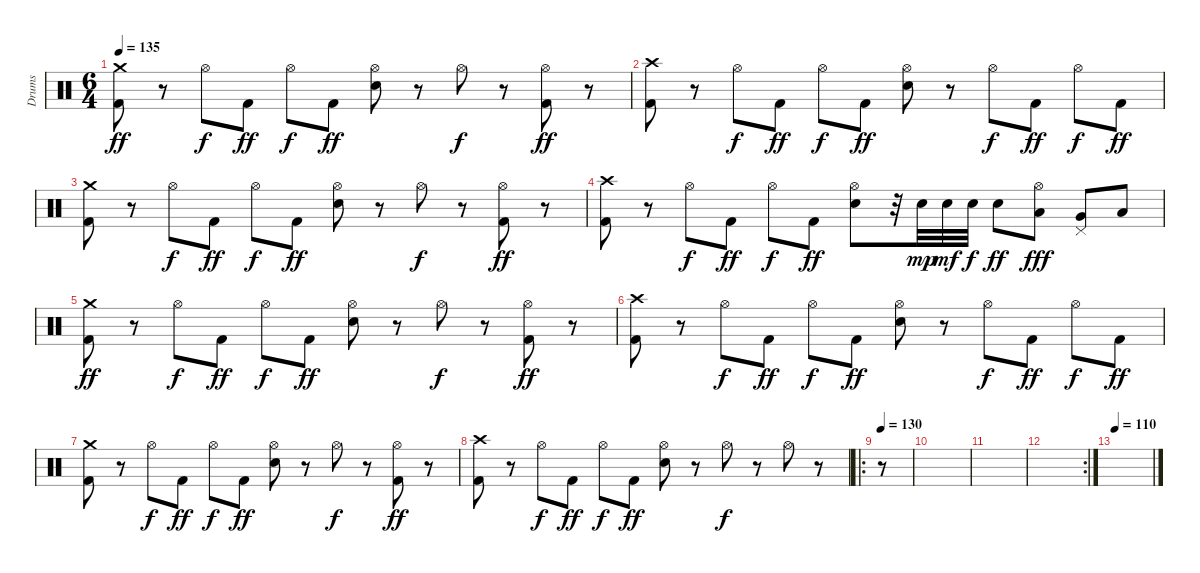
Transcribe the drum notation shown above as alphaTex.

\track ("Drums" "Drums") {instrument percussion}
\staff {score}
\articulation defaults
\ts (6 4)
\tempo 135
\clef neutral
\ks c
("Crash medium (hit)" "Kick (hit) 2").8{dy ff} r.8 "Hi-Hat (open)".8{dy f} "Kick (hit) 2".8{dy ff} "Hi-Hat (open)".8{dy f} "Kick (hit) 2".8{dy ff} ("Hi-Hat (open)" "Electric Snare (hit)").8 r.8 "Hi-Hat (open)".8{dy f} r.8 ("Hi-Hat (open)" "Kick (hit) 2").8{dy ff} r.8 |
("Crash high (hit)" "Kick (hit) 2").8 r.8 "Hi-Hat (open)".8{dy f} "Kick (hit) 2".8{dy ff} "Hi-Hat (open)".8{dy f} "Kick (hit) 2".8{dy ff} ("Hi-Hat (open)" "Electric Snare (hit)").8 r.8 "Hi-Hat (open)".8{dy f} "Kick (hit) 2".8{dy ff} "Hi-Hat (open)".8{dy f} "Kick (hit) 2".8{dy ff} |
("Crash medium (hit)" "Kick (hit) 2").8 r.8 "Hi-Hat (open)".8{dy f} "Kick (hit) 2".8{dy ff} "Hi-Hat (open)".8{dy f} "Kick (hit) 2".8{dy ff} ("Hi-Hat (open)" "Electric Snare (hit)").8 r.8 "Hi-Hat (open)".8{dy f} r.8 ("Hi-Hat (open)" "Kick (hit) 2").8{dy ff} r.8 |
("Crash high (hit)" "Kick (hit) 2").8 r.8 "Hi-Hat (open)".8{dy f} "Kick (hit) 2".8{dy ff} "Hi-Hat (open)".8{dy f} "Kick (hit) 2".8{dy ff} ("Hi-Hat (open)" "Electric Snare (hit)").8 r.32 "Electric Snare (hit)".32{dy mp} "Electric Snare (hit)".32{dy mf} "Electric Snare (hit)".32{dy f} "Electric Snare (hit)".8{dy ff} ("Hi-Hat (open)" "Low Tom (hit)").8{dy fff} ("Pedal Hi-Hat (hit)" "Very Low Tom (hit)").8 "Low Floor Tom (hit)".8 |
("Crash medium (hit)" "Kick (hit) 2").8{dy ff} r.8 "Hi-Hat (open)".8{dy f} "Kick (hit) 2".8{dy ff} "Hi-Hat (open)".8{dy f} "Kick (hit) 2".8{dy ff} ("Hi-Hat (open)" "Electric Snare (hit)").8 r.8 "Hi-Hat (open)".8{dy f} r.8 ("Hi-Hat (open)" "Kick (hit) 2").8{dy ff} r.8 |
("Crash high (hit)" "Kick (hit) 2").8 r.8 "Hi-Hat (open)".8{dy f} "Kick (hit) 2".8{dy ff} "Hi-Hat (open)".8{dy f} "Kick (hit) 2".8{dy ff} ("Hi-Hat (open)" "Electric Snare (hit)").8 r.8 "Hi-Hat (open)".8{dy f} "Kick (hit) 2".8{dy ff} "Hi-Hat (open)".8{dy f} "Kick (hit) 2".8{dy ff} |
("Crash medium (hit)" "Kick (hit) 2").8 r.8 "Hi-Hat (open)".8{dy f} "Kick (hit) 2".8{dy ff} "Hi-Hat (open)".8{dy f} "Kick (hit) 2".8{dy ff} ("Hi-Hat (open)" "Electric Snare (hit)").8 r.8 "Hi-Hat (open)".8{dy f} r.8 ("Hi-Hat (open)" "Kick (hit) 2").8{dy ff} r.8 |
("Crash high (hit)" "Kick (hit) 2").8 r.8 "Hi-Hat (open)".8{dy f} "Kick (hit) 2".8{dy ff} "Hi-Hat (open)".8{dy f} "Kick (hit) 2".8{dy ff} ("Hi-Hat (open)" "Electric Snare (hit)").8 r.8 "Hi-Hat (open)".8{dy f} r.8 "Hi-Hat (open)".8 r.8 |
\ro
\tempo 130
r.8 |
|
|
\rc 2
|
\tempo 110
